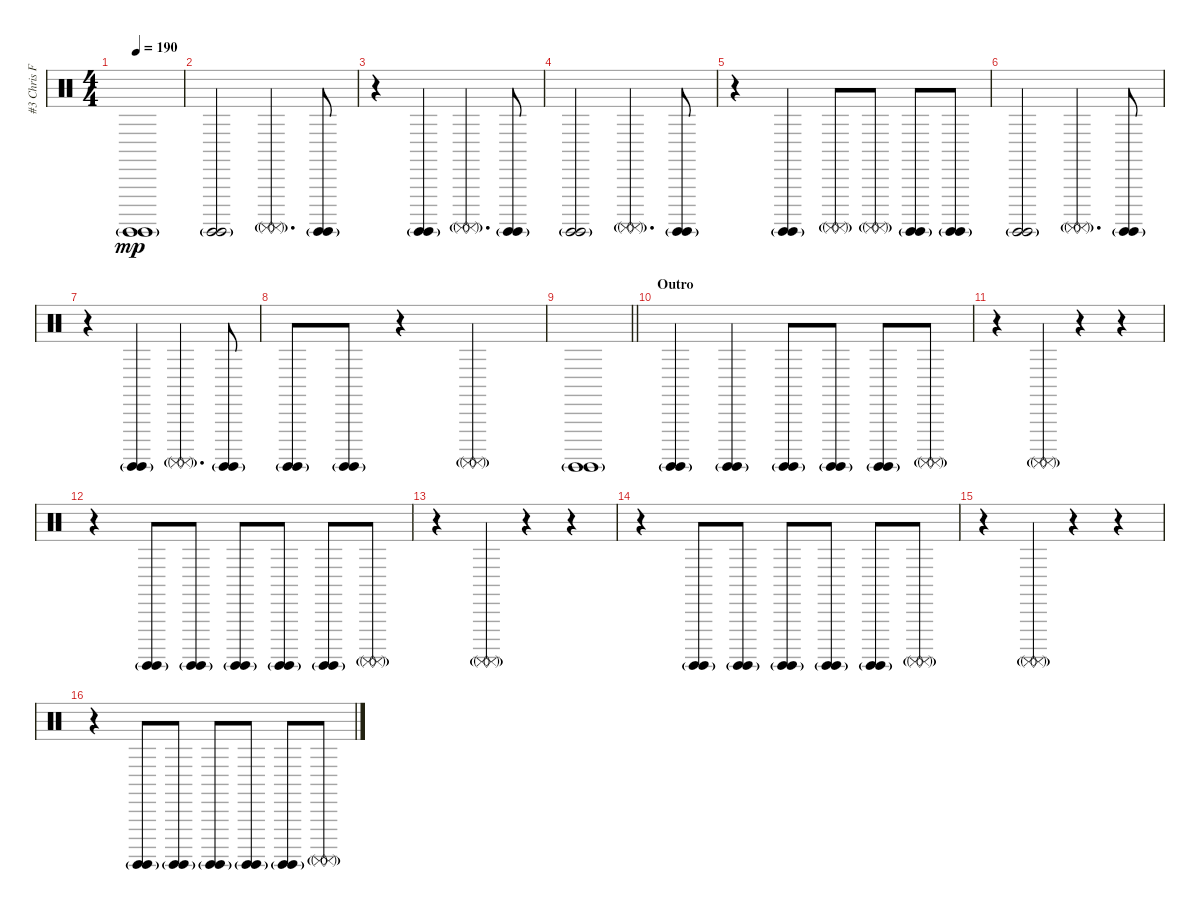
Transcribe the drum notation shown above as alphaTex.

\track ("#3 Chris Fehn" "#3 Chris F") {instrument percussion}
\staff {score}
\articulation defaults
\ts (4 4)
\tempo 190
\clef neutral
\ks c
("Surdo (hit)"{g} "Surdo (hit)"{g}).1{dy mp} |
("Surdo (hit)"{g} "Surdo (hit)"{g}).2 ("Surdo (mute)"{g} "Surdo (mute)"{g}).4{d} ("Surdo (hit)"{g} "Surdo (hit)"{g}).8 |
r.4 ("Surdo (hit)"{g} "Surdo (hit)"{g}).4 ("Surdo (mute)"{g} "Surdo (mute)"{g}).4{d} ("Surdo (hit)"{g} "Surdo (hit)"{g}).8 |
("Surdo (hit)"{g} "Surdo (hit)"{g}).2 ("Surdo (mute)"{g} "Surdo (mute)"{g}).4{d} ("Surdo (hit)"{g} "Surdo (hit)"{g}).8 |
r.4 ("Surdo (hit)"{g} "Surdo (hit)"{g}).4 ("Surdo (mute)"{g} "Surdo (mute)"{g}).8 ("Surdo (mute)"{g} "Surdo (mute)"{g}).8 ("Surdo (hit)"{g} "Surdo (hit)"{g}).8 ("Surdo (hit)"{g} "Surdo (hit)"{g}).8 |
("Surdo (hit)"{g} "Surdo (hit)"{g}).2 ("Surdo (mute)"{g} "Surdo (mute)"{g}).4{d} ("Surdo (hit)"{g} "Surdo (hit)"{g}).8 |
r.4 ("Surdo (hit)"{g} "Surdo (hit)"{g}).4 ("Surdo (mute)"{g} "Surdo (mute)"{g}).4{d} ("Surdo (hit)"{g} "Surdo (hit)"{g}).8 |
("Surdo (hit)"{g} "Surdo (hit)"{g}).8 ("Surdo (hit)"{g} "Surdo (hit)"{g}).8 r.4 ("Surdo (mute)"{g} "Surdo (mute)"{g}).2 |
\barLineRight lightlight
("Surdo (hit)"{g} "Surdo (hit)"{g}).1 |
\section ("" "Outro")
("Surdo (hit)"{g} "Surdo (hit)"{g}).4 ("Surdo (hit)"{g} "Surdo (hit)"{g}).4 ("Surdo (hit)"{g} "Surdo (hit)"{g}).8 ("Surdo (hit)"{g} "Surdo (hit)"{g}).8 ("Surdo (hit)"{g} "Surdo (hit)"{g}).8 ("Surdo (mute)"{g} "Surdo (mute)"{g}).8 |
r.4 ("Surdo (mute)"{g} "Surdo (mute)"{g}).4 r.4 r.4 |
r.4 ("Surdo (hit)"{g} "Surdo (hit)"{g}).8 ("Surdo (hit)"{g} "Surdo (hit)"{g}).8 ("Surdo (hit)"{g} "Surdo (hit)"{g}).8 ("Surdo (hit)"{g} "Surdo (hit)"{g}).8 ("Surdo (hit)"{g} "Surdo (hit)"{g}).8 ("Surdo (mute)"{g} "Surdo (mute)"{g}).8 |
r.4 ("Surdo (mute)"{g} "Surdo (mute)"{g}).4 r.4 r.4 |
r.4 ("Surdo (hit)"{g} "Surdo (hit)"{g}).8 ("Surdo (hit)"{g} "Surdo (hit)"{g}).8 ("Surdo (hit)"{g} "Surdo (hit)"{g}).8 ("Surdo (hit)"{g} "Surdo (hit)"{g}).8 ("Surdo (hit)"{g} "Surdo (hit)"{g}).8 ("Surdo (mute)"{g} "Surdo (mute)"{g}).8 |
r.4 ("Surdo (mute)"{g} "Surdo (mute)"{g}).4 r.4 r.4 |
r.4 ("Surdo (hit)"{g} "Surdo (hit)"{g}).8 ("Surdo (hit)"{g} "Surdo (hit)"{g}).8 ("Surdo (hit)"{g} "Surdo (hit)"{g}).8 ("Surdo (hit)"{g} "Surdo (hit)"{g}).8 ("Surdo (hit)"{g} "Surdo (hit)"{g}).8 ("Surdo (mute)"{g} "Surdo (mute)"{g}).8
